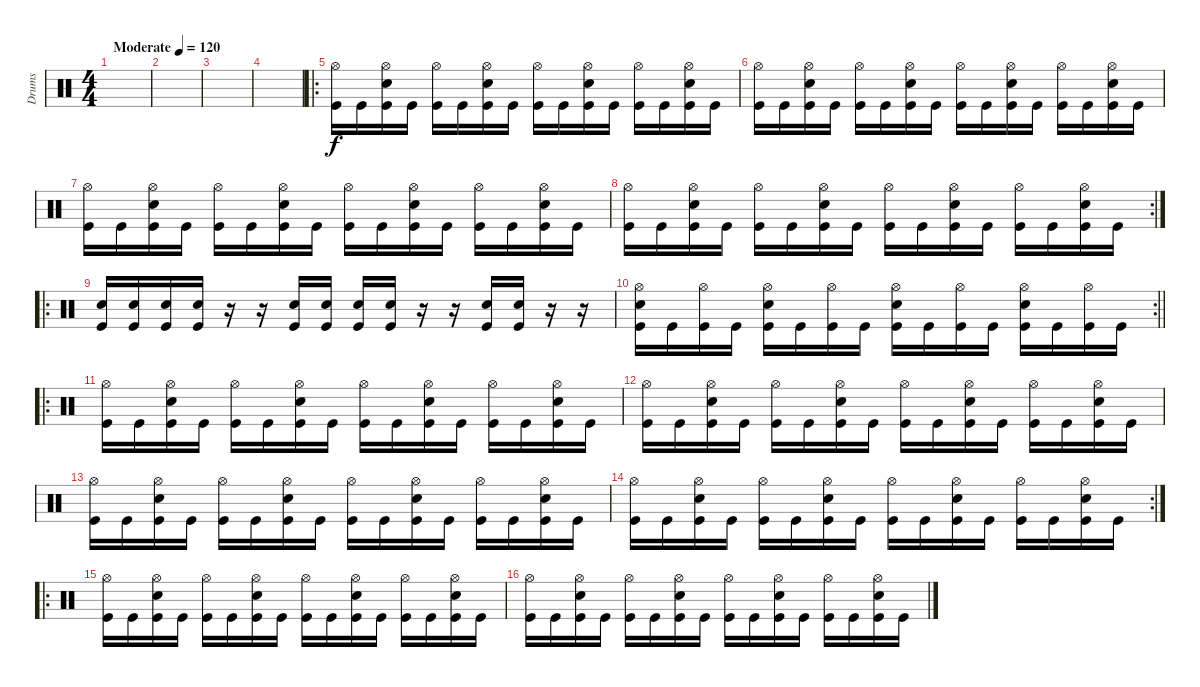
\track ("Drums" "Drums") {instrument percussion}
\staff {score}
\articulation defaults
\ts (4 4)
\tempo (120 "Moderate")
\clef neutral
\ks c
|
|
|
|
\ro
("Hi-Hat (open)" "Kick (hit)").16 "Kick (hit)".16 ("Hi-Hat (open)" "Snare (hit) 2" "Kick (hit)").16 "Kick (hit)".16 ("Hi-Hat (open)" "Kick (hit)").16 "Kick (hit)".16 ("Hi-Hat (open)" "Snare (hit) 2" "Kick (hit)").16 "Kick (hit)".16 ("Hi-Hat (open)" "Kick (hit)").16 "Kick (hit)".16 ("Hi-Hat (open)" "Snare (hit) 2" "Kick (hit)").16 "Kick (hit)".16 ("Hi-Hat (open)" "Kick (hit)").16 "Kick (hit)".16 ("Hi-Hat (open)" "Snare (hit) 2" "Kick (hit)").16 "Kick (hit)".16 |
("Hi-Hat (open)" "Kick (hit)").16 "Kick (hit)".16 ("Hi-Hat (open)" "Snare (hit) 2" "Kick (hit)").16 "Kick (hit)".16 ("Hi-Hat (open)" "Kick (hit)").16 "Kick (hit)".16 ("Hi-Hat (open)" "Snare (hit) 2" "Kick (hit)").16 "Kick (hit)".16 ("Hi-Hat (open)" "Kick (hit)").16 "Kick (hit)".16 ("Hi-Hat (open)" "Snare (hit) 2" "Kick (hit)").16 "Kick (hit)".16 ("Hi-Hat (open)" "Kick (hit)").16 "Kick (hit)".16 ("Hi-Hat (open)" "Snare (hit) 2" "Kick (hit)").16 "Kick (hit)".16 |
("Hi-Hat (open)" "Kick (hit)").16 "Kick (hit)".16 ("Hi-Hat (open)" "Snare (hit) 2" "Kick (hit)").16 "Kick (hit)".16 ("Hi-Hat (open)" "Kick (hit)").16 "Kick (hit)".16 ("Hi-Hat (open)" "Snare (hit) 2" "Kick (hit)").16 "Kick (hit)".16 ("Hi-Hat (open)" "Kick (hit)").16 "Kick (hit)".16 ("Hi-Hat (open)" "Snare (hit) 2" "Kick (hit)").16 "Kick (hit)".16 ("Hi-Hat (open)" "Kick (hit)").16 "Kick (hit)".16 ("Hi-Hat (open)" "Snare (hit) 2" "Kick (hit)").16 "Kick (hit)".16 |
\rc 2
("Hi-Hat (open)" "Kick (hit)").16 "Kick (hit)".16 ("Hi-Hat (open)" "Snare (hit) 2" "Kick (hit)").16 "Kick (hit)".16 ("Hi-Hat (open)" "Kick (hit)").16 "Kick (hit)".16 ("Hi-Hat (open)" "Snare (hit) 2" "Kick (hit)").16 "Kick (hit)".16 ("Hi-Hat (open)" "Kick (hit)").16 "Kick (hit)".16 ("Hi-Hat (open)" "Snare (hit) 2" "Kick (hit)").16 "Kick (hit)".16 ("Hi-Hat (open)" "Kick (hit)").16 "Kick (hit)".16 ("Hi-Hat (open)" "Snare (hit) 2" "Kick (hit)").16 "Kick (hit)".16 |
\ro
("Snare (hit) 2" "Kick (hit)").16 ("Snare (hit) 2" "Kick (hit)").16 ("Snare (hit) 2" "Kick (hit)").16 ("Snare (hit) 2" "Kick (hit)").16 r.16 r.16 ("Snare (hit) 2" "Kick (hit)").16 ("Snare (hit) 2" "Kick (hit)").16 ("Snare (hit) 2" "Kick (hit)").16 ("Snare (hit) 2" "Kick (hit)").16 r.16 r.16 ("Snare (hit) 2" "Kick (hit)").16 ("Snare (hit) 2" "Kick (hit)").16 r.16 r.16 |
\rc 2
\barLineRight lightlight
("Hi-Hat (open)" "Snare (hit) 2" "Kick (hit)").16 "Kick (hit)".16 ("Hi-Hat (open)" "Kick (hit)").16 "Kick (hit)".16 ("Hi-Hat (open)" "Snare (hit) 2" "Kick (hit)").16 "Kick (hit)".16 ("Hi-Hat (open)" "Kick (hit)").16 "Kick (hit)".16 ("Hi-Hat (open)" "Snare (hit) 2" "Kick (hit)").16 "Kick (hit)".16 ("Hi-Hat (open)" "Kick (hit)").16 "Kick (hit)".16 ("Hi-Hat (open)" "Snare (hit) 2" "Kick (hit)").16 "Kick (hit)".16 ("Hi-Hat (open)" "Kick (hit)").16 "Kick (hit)".16 |
\ro
("Hi-Hat (open)" "Kick (hit)").16 "Kick (hit)".16 ("Hi-Hat (open)" "Snare (hit) 2" "Kick (hit)").16 "Kick (hit)".16 ("Hi-Hat (open)" "Kick (hit)").16 "Kick (hit)".16 ("Hi-Hat (open)" "Snare (hit) 2" "Kick (hit)").16 "Kick (hit)".16 ("Hi-Hat (open)" "Kick (hit)").16 "Kick (hit)".16 ("Hi-Hat (open)" "Snare (hit) 2" "Kick (hit)").16 "Kick (hit)".16 ("Hi-Hat (open)" "Kick (hit)").16 "Kick (hit)".16 ("Hi-Hat (open)" "Snare (hit) 2" "Kick (hit)").16 "Kick (hit)".16 |
("Hi-Hat (open)" "Kick (hit)").16 "Kick (hit)".16 ("Hi-Hat (open)" "Snare (hit) 2" "Kick (hit)").16 "Kick (hit)".16 ("Hi-Hat (open)" "Kick (hit)").16 "Kick (hit)".16 ("Hi-Hat (open)" "Snare (hit) 2" "Kick (hit)").16 "Kick (hit)".16 ("Hi-Hat (open)" "Kick (hit)").16 "Kick (hit)".16 ("Hi-Hat (open)" "Snare (hit) 2" "Kick (hit)").16 "Kick (hit)".16 ("Hi-Hat (open)" "Kick (hit)").16 "Kick (hit)".16 ("Hi-Hat (open)" "Snare (hit) 2" "Kick (hit)").16 "Kick (hit)".16 |
("Hi-Hat (open)" "Kick (hit)").16 "Kick (hit)".16 ("Hi-Hat (open)" "Snare (hit) 2" "Kick (hit)").16 "Kick (hit)".16 ("Hi-Hat (open)" "Kick (hit)").16 "Kick (hit)".16 ("Hi-Hat (open)" "Snare (hit) 2" "Kick (hit)").16 "Kick (hit)".16 ("Hi-Hat (open)" "Kick (hit)").16 "Kick (hit)".16 ("Hi-Hat (open)" "Snare (hit) 2" "Kick (hit)").16 "Kick (hit)".16 ("Hi-Hat (open)" "Kick (hit)").16 "Kick (hit)".16 ("Hi-Hat (open)" "Snare (hit) 2" "Kick (hit)").16 "Kick (hit)".16 |
\rc 2
("Hi-Hat (open)" "Kick (hit)").16 "Kick (hit)".16 ("Hi-Hat (open)" "Snare (hit) 2" "Kick (hit)").16 "Kick (hit)".16 ("Hi-Hat (open)" "Kick (hit)").16 "Kick (hit)".16 ("Hi-Hat (open)" "Snare (hit) 2" "Kick (hit)").16 "Kick (hit)".16 ("Hi-Hat (open)" "Kick (hit)").16 "Kick (hit)".16 ("Hi-Hat (open)" "Snare (hit) 2" "Kick (hit)").16 "Kick (hit)".16 ("Hi-Hat (open)" "Kick (hit)").16 "Kick (hit)".16 ("Hi-Hat (open)" "Snare (hit) 2" "Kick (hit)").16 "Kick (hit)".16 |
\ro
("Hi-Hat (open)" "Kick (hit)").16 "Kick (hit)".16 ("Hi-Hat (open)" "Snare (hit) 2" "Kick (hit)").16 "Kick (hit)".16 ("Hi-Hat (open)" "Kick (hit)").16 "Kick (hit)".16 ("Hi-Hat (open)" "Snare (hit) 2" "Kick (hit)").16 "Kick (hit)".16 ("Hi-Hat (open)" "Kick (hit)").16 "Kick (hit)".16 ("Hi-Hat (open)" "Snare (hit) 2" "Kick (hit)").16 "Kick (hit)".16 ("Hi-Hat (open)" "Kick (hit)").16 "Kick (hit)".16 ("Hi-Hat (open)" "Snare (hit) 2" "Kick (hit)").16 "Kick (hit)".16 |
("Hi-Hat (open)" "Kick (hit)").16 "Kick (hit)".16 ("Hi-Hat (open)" "Snare (hit) 2" "Kick (hit)").16 "Kick (hit)".16 ("Hi-Hat (open)" "Kick (hit)").16 "Kick (hit)".16 ("Hi-Hat (open)" "Snare (hit) 2" "Kick (hit)").16 "Kick (hit)".16 ("Hi-Hat (open)" "Kick (hit)").16 "Kick (hit)".16 ("Hi-Hat (open)" "Snare (hit) 2" "Kick (hit)").16 "Kick (hit)".16 ("Hi-Hat (open)" "Kick (hit)").16 "Kick (hit)".16 ("Hi-Hat (open)" "Snare (hit) 2" "Kick (hit)").16 "Kick (hit)".16
